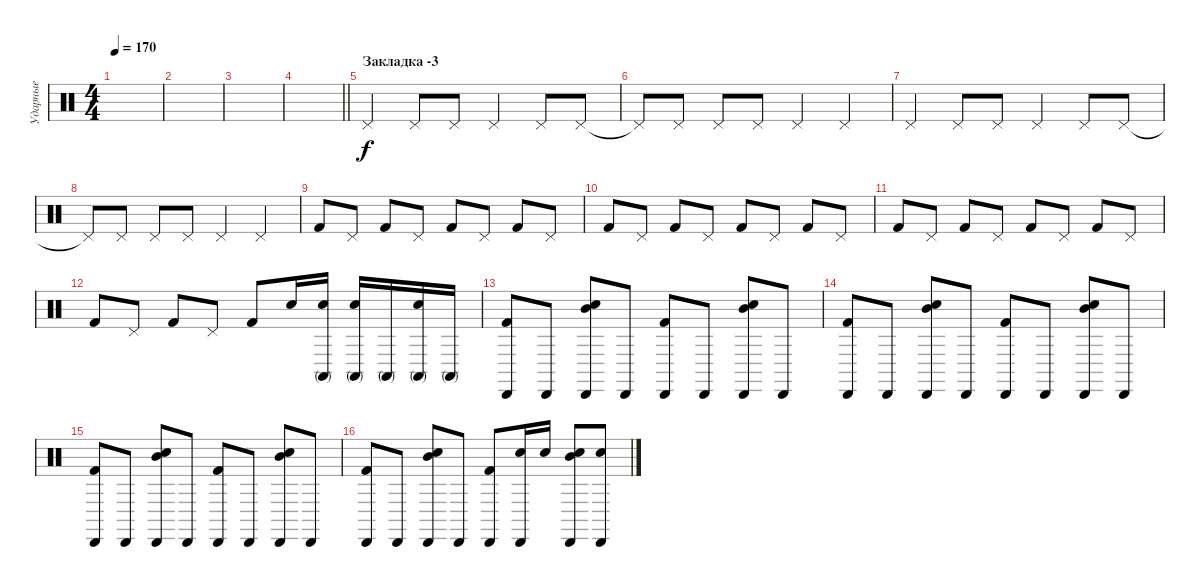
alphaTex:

\track ("Ударные" "Ударные") {instrument percussion}
\staff {score}
\articulation defaults
\ts (4 4)
\tempo 170
\clef neutral
\ks c
|
|
|
\barLineRight lightlight
|
\section ("" "Закладка -3")
"Pedal Hi-Hat (hit)".4 "Pedal Hi-Hat (hit)".8 "Pedal Hi-Hat (hit)".8 "Pedal Hi-Hat (hit)".4 "Pedal Hi-Hat (hit)".8 "Pedal Hi-Hat (hit)".8 |
"Pedal Hi-Hat (hit)"{t}.8 "Pedal Hi-Hat (hit)".8 "Pedal Hi-Hat (hit)".8 "Pedal Hi-Hat (hit)".8 "Pedal Hi-Hat (hit)".4 "Pedal Hi-Hat (hit)".4 |
"Pedal Hi-Hat (hit)".4 "Pedal Hi-Hat (hit)".8 "Pedal Hi-Hat (hit)".8 "Pedal Hi-Hat (hit)".4 "Pedal Hi-Hat (hit)".8 "Pedal Hi-Hat (hit)".8 |
"Pedal Hi-Hat (hit)"{t}.8 "Pedal Hi-Hat (hit)".8 "Pedal Hi-Hat (hit)".8 "Pedal Hi-Hat (hit)".8 "Pedal Hi-Hat (hit)".4 "Pedal Hi-Hat (hit)".4 |
"Kick (hit) 2".8 "Pedal Hi-Hat (hit)".8 "Kick (hit) 2".8 "Pedal Hi-Hat (hit)".8 "Kick (hit) 2".8 "Pedal Hi-Hat (hit)".8 "Kick (hit) 2".8 "Pedal Hi-Hat (hit)".8 |
"Kick (hit) 2".8 "Pedal Hi-Hat (hit)".8 "Kick (hit) 2".8 "Pedal Hi-Hat (hit)".8 "Kick (hit) 2".8 "Pedal Hi-Hat (hit)".8 "Kick (hit) 2".8 "Pedal Hi-Hat (hit)".8 |
"Kick (hit) 2".8 "Pedal Hi-Hat (hit)".8 "Kick (hit) 2".8 "Pedal Hi-Hat (hit)".8 "Kick (hit) 2".8 "Pedal Hi-Hat (hit)".8 "Kick (hit) 2".8 "Pedal Hi-Hat (hit)".8 |
"Kick (hit) 2".8 "Pedal Hi-Hat (hit)".8 "Kick (hit) 2".8 "Pedal Hi-Hat (hit)".8 "Kick (hit) 2".8 "Electric Snare (hit)".16 ("Electric Snare (hit)" "Conga high (mute)").16 ("Electric Snare (hit)" "Conga high (mute)").16 "Conga high (mute)".16 ("Electric Snare (hit)" "Conga high (mute)").16 "Conga high (mute)".16 |
("Kick (hit) 2" "Cabasa (hit)").8 "Cabasa (hit)".8 ("Electric Snare (hit)" "Mid Tom (hit)" "Cabasa (hit)").8 "Cabasa (hit)".8 ("Cabasa (hit)" "Kick (hit) 2").8 "Cabasa (hit)".8 ("Cabasa (hit)" "Electric Snare (hit)" "Mid Tom (hit)").8 "Cabasa (hit)".8 |
("Cabasa (hit)" "Kick (hit) 2").8 "Cabasa (hit)".8 ("Electric Snare (hit)" "Cabasa (hit)" "Mid Tom (hit)").8 "Cabasa (hit)".8 ("Cabasa (hit)" "Kick (hit) 2").8 "Cabasa (hit)".8 ("Mid Tom (hit)" "Electric Snare (hit)" "Cabasa (hit)").8 "Cabasa (hit)".8 |
("Kick (hit) 2" "Cabasa (hit)").8 "Cabasa (hit)".8 ("Electric Snare (hit)" "Mid Tom (hit)" "Cabasa (hit)").8 "Cabasa (hit)".8 ("Cabasa (hit)" "Kick (hit) 2").8 "Cabasa (hit)".8 ("Cabasa (hit)" "Electric Snare (hit)" "Mid Tom (hit)").8 "Cabasa (hit)".8 |
("Cabasa (hit)" "Kick (hit) 2").8 "Cabasa (hit)".8 ("Electric Snare (hit)" "Cabasa (hit)" "Mid Tom (hit)").8 "Cabasa (hit)".8 ("Cabasa (hit)" "Kick (hit) 2").8 ("Electric Snare (hit)" "Cabasa (hit)").16 "Electric Snare (hit)".16 ("Electric Snare (hit)" "Mid Tom (hit)" "Cabasa (hit)").8 ("Electric Snare (hit)" "Cabasa (hit)").8
